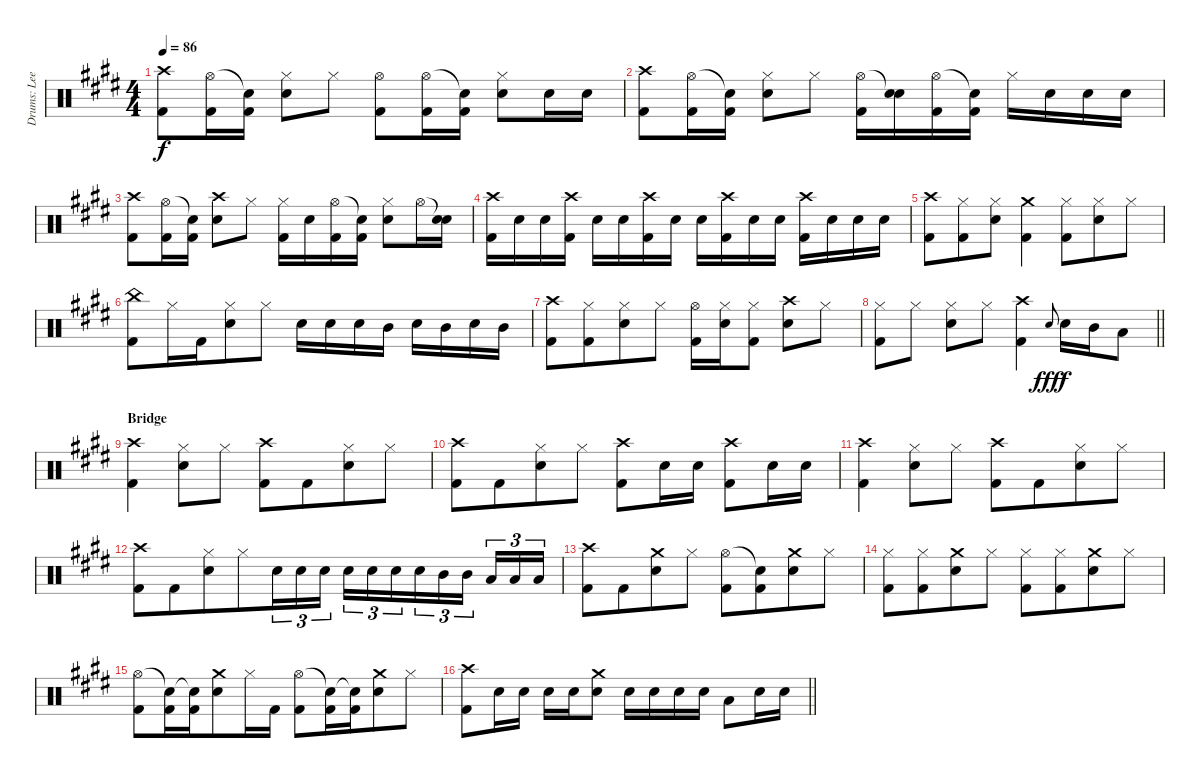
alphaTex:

\track ("Drums: Lee" "Drums: Lee") {instrument percussion}
\staff {score}
\articulation defaults
\ts (4 4)
\tempo 86
\clef neutral
\ks c#minor
("Crash high (hit)" "Kick (hit) 2").8{dy f} ("Hi-Hat (open)" "Kick (hit) 2").16 ("Snare (hit)"{t} "Kick (hit) 2").16 ("Hi-Hat (closed)" "Snare (hit) 2").8 "Hi-Hat (closed)".8 ("Hi-Hat (open)" "Kick (hit) 2").8 ("Hi-Hat (open)" "Kick (hit) 2").16 ("Snare (hit)"{t} "Kick (hit) 2").16 ("Hi-Hat (closed)" "Snare (hit) 2").8 "Snare (hit) 2".16 "Snare (hit) 2".16 |
("Crash high (hit)" "Kick (hit) 2").8 ("Hi-Hat (open)" "Kick (hit) 2").16 ("Snare (hit)"{t} "Kick (hit) 2").16 ("Hi-Hat (closed)" "Snare (hit) 2").8 "Hi-Hat (closed)".8 ("Hi-Hat (open)" "Kick (hit) 2").16 ("Snare (hit)"{t} "Snare (hit) 2").16 ("Hi-Hat (open)" "Kick (hit) 2").16 ("Snare (hit)"{t} "Kick (hit) 2").16 "Hi-Hat (closed)".16 "Snare (hit) 2".16 "Snare (hit) 2".16 "Snare (hit) 2".16 |
("Crash high (hit)" "Kick (hit) 2").8 ("Hi-Hat (open)" "Kick (hit) 2").16 ("Snare (hit)"{t} "Kick (hit) 2").16 ("Crash high (hit)" "Snare (hit) 2").8 "Hi-Hat (closed)".8 ("Hi-Hat (closed)" "Kick (hit) 2").16 "Snare (hit) 2".16 ("Hi-Hat (open)" "Kick (hit) 2").16 ("Snare (hit)"{t} "Kick (hit) 2").16 ("Hi-Hat (closed)" "Snare (hit) 2").8 "Hi-Hat (open)".16 ("Snare (hit)"{t} "Snare (hit) 2").16 |
("Crash high (hit)" "Kick (hit) 2").16 "Snare (hit) 2".16 "Snare (hit) 2".16 ("Crash high (hit)" "Kick (hit) 2").16 "Snare (hit) 2".16 "Snare (hit) 2".16 ("Crash high (hit)" "Kick (hit) 2").16 "Snare (hit) 2".16 "Snare (hit) 2".16 ("Crash high (hit)" "Kick (hit) 2").16 "Snare (hit) 2".16 "Snare (hit) 2".16 ("Crash high (hit)" "Kick (hit) 2").16 "Snare (hit) 2".16 "Snare (hit) 2".16 "Snare (hit) 2".16 |
\ks e
("Crash high (hit)" "Kick (hit) 2").8 ("Hi-Hat (closed)" "Kick (hit) 2").8{beam merge} ("Hi-Hat (closed)" "Snare (hit) 2").8 ("Crash medium (hit)" "Kick (hit) 2").4 ("Hi-Hat (closed)" "Kick (hit) 2").8{beam merge} ("Hi-Hat (closed)" "Snare (hit) 2").8 "Hi-Hat (closed)".8 |
\ks c#minor
("China (hit)" "Kick (hit) 2").8 "Hi-Hat (closed)".16 "Kick (hit) 2".16{beam merge} ("Hi-Hat (closed)" "Snare (hit) 2").8 "Hi-Hat (closed)".8 "Snare (hit) 2".16 "Snare (hit) 2".16 "Snare (hit) 2".16 "Mid Tom (hit)".16 "Snare (hit) 2".16 "Mid Tom (hit)".16 "Snare (hit) 2".16 "Mid Tom (hit)".16 |
\ks e
("Crash high (hit)" "Kick (hit) 2").8 ("Hi-Hat (closed)" "Kick (hit) 2").8{beam merge} ("Hi-Hat (closed)" "Snare (hit) 2").8 "Hi-Hat (closed)".8 ("Hi-Hat (open)" "Kick (hit) 2").16{beam merge} ("Hi-Hat (closed)" "Snare (hit) 2").16 ("Hi-Hat (closed)" "Kick (hit) 2").8 ("Crash high (hit)" "Snare (hit) 2").8 "Hi-Hat (closed)".8 |
\barLineRight lightlight
\ks c#minor
("Hi-Hat (closed)" "Kick (hit) 2").8 "Hi-Hat (closed)".8 ("Hi-Hat (closed)" "Snare (hit) 2").8 "Hi-Hat (closed)".8 ("Crash high (hit)" "Kick (hit) 2").4 "Electric Snare (hit)".8{gr onbeat dy fff} "Snare (hit) 2".16{dy f} "Mid Tom (hit)".16 "Low Tom (hit)".8 |
\section ("" "Bridge")
("Crash high (hit)" "Kick (hit) 2").4{beam merge} ("Hi-Hat (closed)" "Snare (hit) 2").8 "Hi-Hat (closed)".8 ("Crash high (hit)" "Kick (hit) 2").8 "Kick (hit) 2".8{beam merge} ("Hi-Hat (closed)" "Snare (hit) 2").8 "Hi-Hat (closed)".8 |
("Crash high (hit)" "Kick (hit) 2").8 "Kick (hit) 2".8{beam merge} ("Hi-Hat (closed)" "Snare (hit) 2").8 "Hi-Hat (closed)".8 ("Crash high (hit)" "Kick (hit) 2").8{beam merge} "Snare (hit) 2".16 "Snare (hit) 2".16 ("Crash high (hit)" "Kick (hit) 2").8{beam merge} "Snare (hit) 2".16 "Snare (hit) 2".16 |
("Crash high (hit)" "Kick (hit) 2").4{beam merge} ("Hi-Hat (closed)" "Snare (hit) 2").8 "Hi-Hat (closed)".8 ("Crash high (hit)" "Kick (hit) 2").8 "Kick (hit) 2".8{beam merge} ("Hi-Hat (closed)" "Snare (hit) 2").8 "Hi-Hat (closed)".8 |
("Crash high (hit)" "Kick (hit) 2").8 "Kick (hit) 2".8{beam merge} ("Hi-Hat (closed)" "Snare (hit) 2").8 "Hi-Hat (closed)".8{beam merge} "Snare (hit) 2".16{tu (3 2)} "Snare (hit) 2".16{tu (3 2) beam merge} "Snare (hit) 2".16{tu (3 2) beam splitsecondary} "Snare (hit) 2".16{tu (3 2)} "Snare (hit) 2".16{tu (3 2) beam merge} "Snare (hit) 2".16{tu (3 2) beam merge} "Snare (hit) 2".16{tu (3 2)} "Mid Tom (hit)".16{tu (3 2) beam merge} "Mid Tom (hit)".16{tu (3 2) beam splitsecondary} "Low Tom (hit)".16{tu (3 2) beam merge} "Low Tom (hit)".16{tu (3 2) beam merge} "Low Tom (hit)".16{tu (3 2)} |
("Crash high (hit)" "Kick (hit) 2").8 "Kick (hit) 2".8{beam merge} ("Crash medium (hit)" "Snare (hit) 2").8 "Hi-Hat (closed)".8 ("Hi-Hat (open)" "Kick (hit) 2").8 ("Snare (hit)"{t} "Kick (hit) 2").8{beam merge} ("Crash medium (hit)" "Snare (hit) 2").8 "Hi-Hat (closed)".8 |
("Hi-Hat (closed)" "Kick (hit) 2").8 ("Hi-Hat (closed)" "Kick (hit) 2").8{beam merge} ("Crash medium (hit)" "Snare (hit) 2").8 "Hi-Hat (closed)".8 ("Hi-Hat (closed)" "Kick (hit) 2").8 ("Hi-Hat (closed)" "Kick (hit) 2").8{beam merge} ("Crash medium (hit)" "Snare (hit) 2").8 "Hi-Hat (closed)".8 |
("Hi-Hat (open)" "Kick (hit) 2").8 ("Snare (hit)"{t} "Kick (hit) 2").16 ("Snare (hit)"{t} "Kick (hit) 2").16{beam merge} ("Crash medium (hit)" "Snare (hit) 2").8 "Hi-Hat (closed)".16 "Kick (hit) 2".16 ("Hi-Hat (open)" "Kick (hit) 2").8 ("Snare (hit)"{t} "Kick (hit) 2").16 ("Snare (hit)"{t} "Kick (hit) 2").16{beam merge} ("Crash medium (hit)" "Snare (hit) 2").8 "Hi-Hat (closed)".8 |
\barLineRight lightlight
("Crash high (hit)" "Kick (hit) 2").8 "Snare (hit) 2".16 "Snare (hit) 2".16 "Snare (hit) 2".16 "Snare (hit) 2".16{beam merge} ("Crash medium (hit)" "Snare (hit) 2").8 "Snare (hit) 2".16 "Snare (hit) 2".16 "Snare (hit) 2".16 "Snare (hit) 2".16 "Low Tom (hit)".8 "Snare (hit) 2".16 "Snare (hit) 2".16
